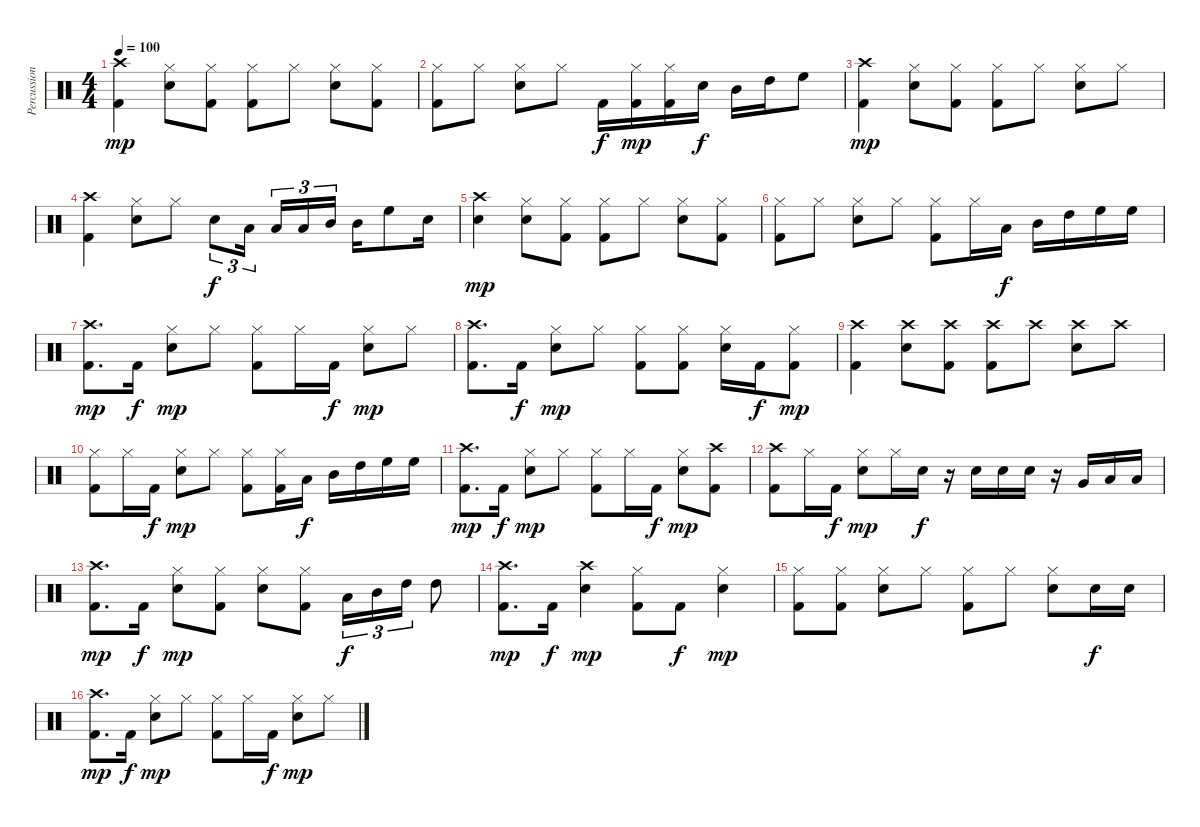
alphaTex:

\track ("Percussion" "Percussion") {instrument percussion}
\staff {score}
\articulation defaults
\ts (4 4)
\tempo 100
\clef neutral
\ks c
("Kick (hit) 2" "Crash high (hit)").4{dy mp} ("Snare (hit) 2" "Hi-Hat (closed)").8 ("Kick (hit) 2" "Hi-Hat (closed)").8 ("Kick (hit) 2" "Hi-Hat (closed)").8 "Hi-Hat (closed)".8 ("Snare (hit) 2" "Hi-Hat (closed)").8 ("Kick (hit) 2" "Hi-Hat (closed)").8 |
("Kick (hit) 2" "Hi-Hat (closed)").8 "Hi-Hat (closed)".8 ("Snare (hit) 2" "Hi-Hat (closed)").8 "Hi-Hat (closed)".8 "Kick (hit) 2".16{dy f} ("Kick (hit) 2" "Hi-Hat (closed)").16{dy mp} ("Kick (hit) 2" "Hi-Hat (closed)").16 "Snare (hit) 2".16{dy f} "Mid Tom (hit)".16 "High Tom (hit)".16 "High Floor Tom (hit)".8 |
("Kick (hit) 2" "Crash high (hit)").4{dy mp} ("Snare (hit) 2" "Hi-Hat (closed)").8 ("Kick (hit) 2" "Hi-Hat (closed)").8 ("Kick (hit) 2" "Hi-Hat (closed)").8 "Hi-Hat (closed)".8 ("Snare (hit) 2" "Hi-Hat (closed)").8 "Hi-Hat (closed)".8 |
("Kick (hit) 2" "Crash high (hit)").4 ("Snare (hit) 2" "Hi-Hat (closed)").8 "Hi-Hat (closed)".8 "Snare (hit) 2".8{tu (3 2) dy f} "Low Tom (hit)".16{tu (3 2)} "Low Tom (hit)".16{tu (3 2)} "Low Tom (hit)".16{tu (3 2)} "Mid Tom (hit)".16{tu (3 2)} "Mid Tom (hit)".16 "High Floor Tom (hit)".8 "Snare (hit) 2".16 |
("Snare (hit) 2" "Crash high (hit)").4{dy mp} ("Snare (hit) 2" "Hi-Hat (closed)").8 ("Kick (hit) 2" "Hi-Hat (closed)").8 ("Kick (hit) 2" "Hi-Hat (closed)").8 "Hi-Hat (closed)".8 ("Snare (hit) 2" "Hi-Hat (closed)").8 ("Kick (hit) 2" "Hi-Hat (closed)").8 |
("Kick (hit) 2" "Hi-Hat (closed)").8 "Hi-Hat (closed)".8 ("Snare (hit) 2" "Hi-Hat (closed)").8 "Hi-Hat (closed)".8 ("Kick (hit) 2" "Hi-Hat (closed)").8 "Hi-Hat (closed)".16 "Low Tom (hit)".16{dy f} "Mid Tom (hit)".16 "High Tom (hit)".16 "High Floor Tom (hit)".16 "High Floor Tom (hit)".16 |
("Kick (hit) 2" "Crash high (hit)").8{d dy mp} "Kick (hit) 2".16{dy f} ("Snare (hit) 2" "Hi-Hat (closed)").8{dy mp} "Hi-Hat (closed)".8 ("Kick (hit) 2" "Hi-Hat (closed)").8 "Hi-Hat (closed)".16 "Kick (hit) 2".16{dy f} ("Snare (hit) 2" "Hi-Hat (closed)").8{dy mp} "Hi-Hat (closed)".8 |
("Kick (hit) 2" "Crash high (hit)").8{d} "Kick (hit) 2".16{dy f} ("Snare (hit) 2" "Hi-Hat (closed)").8{dy mp} "Hi-Hat (closed)".8 ("Kick (hit) 2" "Hi-Hat (closed)").8 ("Kick (hit) 2" "Hi-Hat (closed)").8 ("Snare (hit) 2" "Hi-Hat (closed)").16 "Kick (hit) 2".16{dy f} ("Kick (hit) 2" "Hi-Hat (closed)").8{dy mp} |
("Kick (hit) 2" "Crash high (hit)").4 ("Snare (hit) 2" "Crash high (hit)").8 ("Kick (hit) 2" "Crash high (hit)").8 ("Kick (hit) 2" "Crash high (hit)").8 "Crash high (hit)".8 ("Snare (hit) 2" "Crash high (hit)").8 "Crash high (hit)".8 |
("Kick (hit) 2" "Hi-Hat (closed)").8 "Hi-Hat (closed)".16 "Kick (hit) 2".16{dy f} ("Snare (hit) 2" "Hi-Hat (closed)").8{dy mp} "Hi-Hat (closed)".8 ("Kick (hit) 2" "Hi-Hat (closed)").8 ("Kick (hit) 2" "Hi-Hat (closed)").16 "Low Tom (hit)".16{dy f} "Mid Tom (hit)".16 "High Tom (hit)".16 "High Floor Tom (hit)".16 "High Floor Tom (hit)".16 |
("Kick (hit) 2" "Crash high (hit)").8{d dy mp} "Kick (hit) 2".16{dy f} ("Snare (hit) 2" "Hi-Hat (closed)").8{dy mp} "Hi-Hat (closed)".8 ("Kick (hit) 2" "Hi-Hat (closed)").8 "Hi-Hat (closed)".16 "Kick (hit) 2".16{dy f} ("Snare (hit) 2" "Hi-Hat (closed)").8{dy mp} ("Kick (hit) 2" "Crash high (hit)").8 |
("Kick (hit) 2" "Crash high (hit)").8 "Hi-Hat (closed)".16 "Kick (hit) 2".16{dy f} ("Snare (hit) 2" "Hi-Hat (closed)").8{dy mp} "Hi-Hat (closed)".16 "Snare (hit) 2".16{dy f} r.16 "Snare (hit) 2".16 "Snare (hit) 2".16 "Snare (hit) 2".16 r.16 "Very Low Tom (hit)".16 "Low Floor Tom (hit)".16 "Low Tom (hit)".16 |
("Kick (hit) 2" "Crash high (hit)").8{d dy mp} "Kick (hit) 2".16{dy f} ("Snare (hit) 2" "Hi-Hat (closed)").8{dy mp} ("Kick (hit) 2" "Hi-Hat (closed)").8 ("Snare (hit) 2" "Hi-Hat (closed)").8 ("Kick (hit) 2" "Hi-Hat (closed)").8 "Low Tom (hit)".16{tu (3 2) dy f} "Mid Tom (hit)".16{tu (3 2)} "High Tom (hit)".16{tu (3 2)} "High Tom (hit)".8 |
("Kick (hit) 2" "Crash high (hit)").8{d dy mp} "Kick (hit) 2".16{dy f} ("Snare (hit) 2" "Crash high (hit)").4{dy mp} ("Kick (hit) 2" "Hi-Hat (closed)").8 "Kick (hit) 2".8{dy f} ("Snare (hit) 2" "Hi-Hat (closed)").4{dy mp} |
("Kick (hit) 2" "Hi-Hat (closed)").8 ("Kick (hit) 2" "Hi-Hat (closed)").8 ("Snare (hit) 2" "Hi-Hat (closed)").8 "Hi-Hat (closed)".8 ("Kick (hit) 2" "Hi-Hat (closed)").8 "Hi-Hat (closed)".8 ("Snare (hit) 2" "Hi-Hat (closed)").8 "Snare (hit) 2".16{dy f} "Snare (hit) 2".16 |
("Kick (hit) 2" "Crash high (hit)").8{d dy mp} "Kick (hit) 2".16{dy f} ("Snare (hit) 2" "Hi-Hat (closed)").8{dy mp} "Hi-Hat (closed)".8 ("Kick (hit) 2" "Hi-Hat (closed)").8 "Hi-Hat (closed)".16 "Kick (hit) 2".16{dy f} ("Snare (hit) 2" "Hi-Hat (closed)").8{dy mp} "Hi-Hat (closed)".8
